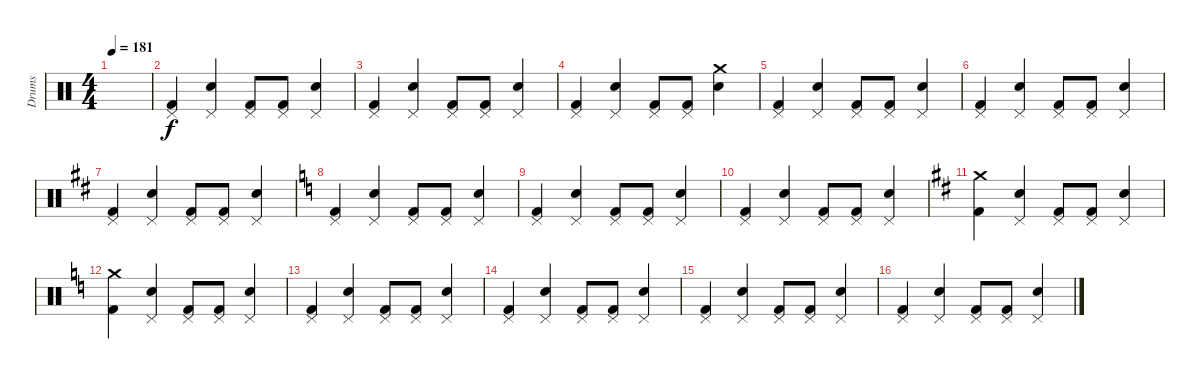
\track ("Drums" "Drums") {instrument percussion}
\staff {score}
\articulation defaults
\ts (4 4)
\tempo 181
\clef neutral
\ks c
|
("Pedal Hi-Hat (hit)" "Kick (hit) 2").4 ("Pedal Hi-Hat (hit)" "Snare (hit) 2").4 ("Pedal Hi-Hat (hit)" "Kick (hit) 2").8 ("Pedal Hi-Hat (hit)" "Kick (hit) 2").8 ("Pedal Hi-Hat (hit)" "Snare (hit) 2").4 |
("Pedal Hi-Hat (hit)" "Kick (hit) 2").4 ("Pedal Hi-Hat (hit)" "Snare (hit) 2").4 ("Pedal Hi-Hat (hit)" "Kick (hit) 2").8 ("Pedal Hi-Hat (hit)" "Kick (hit) 2").8 ("Pedal Hi-Hat (hit)" "Snare (hit) 2").4 |
("Pedal Hi-Hat (hit)" "Kick (hit) 2").4 ("Pedal Hi-Hat (hit)" "Snare (hit) 2").4 ("Pedal Hi-Hat (hit)" "Kick (hit) 2").8 ("Pedal Hi-Hat (hit)" "Kick (hit) 2").8 ("Crash medium (hit)" "Snare (hit) 2").4 |
("Pedal Hi-Hat (hit)" "Kick (hit) 2").4 ("Pedal Hi-Hat (hit)" "Snare (hit) 2").4 ("Pedal Hi-Hat (hit)" "Kick (hit) 2").8 ("Pedal Hi-Hat (hit)" "Kick (hit) 2").8 ("Pedal Hi-Hat (hit)" "Snare (hit) 2").4 |
("Pedal Hi-Hat (hit)" "Kick (hit) 2").4 ("Pedal Hi-Hat (hit)" "Snare (hit) 2").4 ("Pedal Hi-Hat (hit)" "Kick (hit) 2").8 ("Pedal Hi-Hat (hit)" "Kick (hit) 2").8 ("Pedal Hi-Hat (hit)" "Snare (hit) 2").4 |
\ks d
("Pedal Hi-Hat (hit)" "Kick (hit) 2").4 ("Pedal Hi-Hat (hit)" "Snare (hit) 2").4 ("Pedal Hi-Hat (hit)" "Kick (hit) 2").8 ("Pedal Hi-Hat (hit)" "Kick (hit) 2").8 ("Pedal Hi-Hat (hit)" "Snare (hit) 2").4 |
\ks c
("Pedal Hi-Hat (hit)" "Kick (hit) 2").4 ("Pedal Hi-Hat (hit)" "Snare (hit) 2").4 ("Pedal Hi-Hat (hit)" "Kick (hit) 2").8 ("Pedal Hi-Hat (hit)" "Kick (hit) 2").8 ("Pedal Hi-Hat (hit)" "Snare (hit) 2").4 |
("Pedal Hi-Hat (hit)" "Kick (hit) 2").4 ("Pedal Hi-Hat (hit)" "Snare (hit) 2").4 ("Pedal Hi-Hat (hit)" "Kick (hit) 2").8 ("Pedal Hi-Hat (hit)" "Kick (hit) 2").8 ("Pedal Hi-Hat (hit)" "Snare (hit) 2").4 |
("Pedal Hi-Hat (hit)" "Kick (hit) 2").4 ("Pedal Hi-Hat (hit)" "Snare (hit) 2").4 ("Pedal Hi-Hat (hit)" "Kick (hit) 2").8 ("Pedal Hi-Hat (hit)" "Kick (hit) 2").8 ("Pedal Hi-Hat (hit)" "Snare (hit) 2").4 |
\ks d
("Crash medium (hit)" "Kick (hit) 2").4 ("Pedal Hi-Hat (hit)" "Snare (hit) 2").4 ("Pedal Hi-Hat (hit)" "Kick (hit) 2").8 ("Pedal Hi-Hat (hit)" "Kick (hit) 2").8 ("Pedal Hi-Hat (hit)" "Snare (hit) 2").4 |
\ks c
("Crash medium (hit)" "Kick (hit) 2").4 ("Pedal Hi-Hat (hit)" "Snare (hit) 2").4 ("Pedal Hi-Hat (hit)" "Kick (hit) 2").8 ("Pedal Hi-Hat (hit)" "Kick (hit) 2").8 ("Pedal Hi-Hat (hit)" "Snare (hit) 2").4 |
("Pedal Hi-Hat (hit)" "Kick (hit) 2").4 ("Pedal Hi-Hat (hit)" "Snare (hit) 2").4 ("Pedal Hi-Hat (hit)" "Kick (hit) 2").8 ("Pedal Hi-Hat (hit)" "Kick (hit) 2").8 ("Pedal Hi-Hat (hit)" "Snare (hit) 2").4 |
("Pedal Hi-Hat (hit)" "Kick (hit) 2").4 ("Pedal Hi-Hat (hit)" "Snare (hit) 2").4 ("Pedal Hi-Hat (hit)" "Kick (hit) 2").8 ("Pedal Hi-Hat (hit)" "Kick (hit) 2").8 ("Pedal Hi-Hat (hit)" "Snare (hit) 2").4 |
("Pedal Hi-Hat (hit)" "Kick (hit) 2").4 ("Pedal Hi-Hat (hit)" "Snare (hit) 2").4 ("Pedal Hi-Hat (hit)" "Kick (hit) 2").8 ("Pedal Hi-Hat (hit)" "Kick (hit) 2").8 ("Pedal Hi-Hat (hit)" "Snare (hit) 2").4 |
("Pedal Hi-Hat (hit)" "Kick (hit) 2").4 ("Pedal Hi-Hat (hit)" "Snare (hit) 2").4 ("Pedal Hi-Hat (hit)" "Kick (hit) 2").8 ("Pedal Hi-Hat (hit)" "Kick (hit) 2").8 ("Pedal Hi-Hat (hit)" "Snare (hit) 2").4
